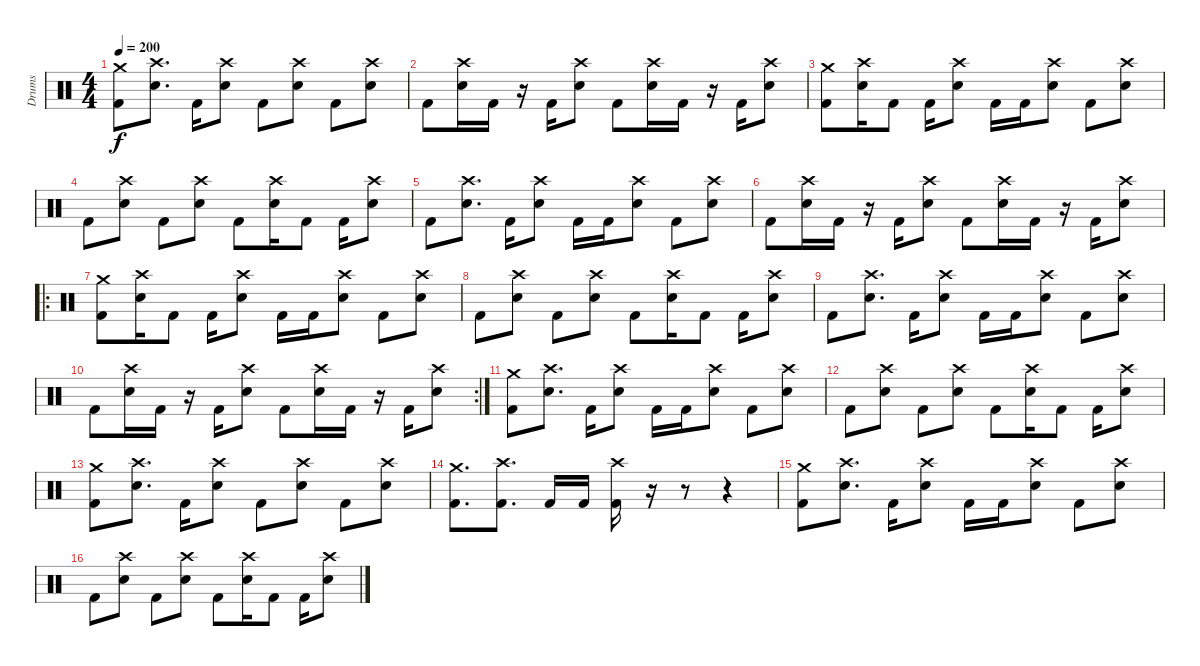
\track ("Drums" "Drums") {instrument percussion}
\staff {score}
\articulation defaults
\ts (4 4)
\tempo 200
\clef neutral
\ks c
("Crash medium (hit)" "Kick (hit) 2").8{dy f} ("Crash high (hit)" "Electric Snare (hit)").8{d} "Kick (hit) 2".16 ("Crash high (hit)" "Electric Snare (hit)").8 "Kick (hit) 2".8 ("Crash high (hit)" "Electric Snare (hit)").8 "Kick (hit) 2".8 ("Crash high (hit)" "Electric Snare (hit)").8 |
"Kick (hit) 2".8 ("Crash high (hit)" "Electric Snare (hit)").16 "Kick (hit) 2".16 r.16 "Kick (hit) 2".16 ("Crash high (hit)" "Electric Snare (hit)").8 "Kick (hit) 2".8 ("Crash high (hit)" "Electric Snare (hit)").16 "Kick (hit) 2".16 r.16 "Kick (hit) 2".16 ("Crash high (hit)" "Electric Snare (hit)").8 |
("Crash medium (hit)" "Kick (hit) 2").8 ("Crash high (hit)" "Electric Snare (hit)").16 "Kick (hit) 2".8 "Kick (hit) 2".16 ("Crash high (hit)" "Electric Snare (hit)").8 "Kick (hit) 2".16 "Kick (hit) 2".16 ("Crash high (hit)" "Electric Snare (hit)").8 "Kick (hit) 2".8 ("Crash high (hit)" "Electric Snare (hit)").8 |
"Kick (hit) 2".8 ("Crash high (hit)" "Electric Snare (hit)").8 "Kick (hit) 2".8 ("Crash high (hit)" "Electric Snare (hit)").8 "Kick (hit) 2".8 ("Crash high (hit)" "Electric Snare (hit)").16 "Kick (hit) 2".8 "Kick (hit) 2".16 ("Crash high (hit)" "Electric Snare (hit)").8 |
"Kick (hit) 2".8 ("Crash high (hit)" "Electric Snare (hit)").8{d} "Kick (hit) 2".16 ("Crash high (hit)" "Electric Snare (hit)").8 "Kick (hit) 2".16 "Kick (hit) 2".16 ("Crash high (hit)" "Electric Snare (hit)").8 "Kick (hit) 2".8 ("Crash high (hit)" "Electric Snare (hit)").8 |
"Kick (hit) 2".8 ("Crash high (hit)" "Electric Snare (hit)").16 "Kick (hit) 2".16 r.16 "Kick (hit) 2".16 ("Crash high (hit)" "Electric Snare (hit)").8 "Kick (hit) 2".8 ("Crash high (hit)" "Electric Snare (hit)").16 "Kick (hit) 2".16 r.16 "Kick (hit) 2".16 ("Crash high (hit)" "Electric Snare (hit)").8 |
\ro
("Crash medium (hit)" "Kick (hit) 2").8 ("Crash high (hit)" "Electric Snare (hit)").16 "Kick (hit) 2".8 "Kick (hit) 2".16 ("Crash high (hit)" "Electric Snare (hit)").8 "Kick (hit) 2".16 "Kick (hit) 2".16 ("Crash high (hit)" "Electric Snare (hit)").8 "Kick (hit) 2".8 ("Crash high (hit)" "Electric Snare (hit)").8 |
"Kick (hit) 2".8 ("Crash high (hit)" "Electric Snare (hit)").8 "Kick (hit) 2".8 ("Crash high (hit)" "Electric Snare (hit)").8 "Kick (hit) 2".8 ("Crash high (hit)" "Electric Snare (hit)").16 "Kick (hit) 2".8 "Kick (hit) 2".16 ("Crash high (hit)" "Electric Snare (hit)").8 |
"Kick (hit) 2".8 ("Crash high (hit)" "Electric Snare (hit)").8{d} "Kick (hit) 2".16 ("Crash high (hit)" "Electric Snare (hit)").8 "Kick (hit) 2".16 "Kick (hit) 2".16 ("Crash high (hit)" "Electric Snare (hit)").8 "Kick (hit) 2".8 ("Crash high (hit)" "Electric Snare (hit)").8 |
\rc 2 "Kick (hit) 2".8
("Crash high (hit)" "Electric Snare (hit)").16 "Kick (hit) 2".16 r.16 "Kick (hit) 2".16 ("Crash high (hit)" "Electric Snare (hit)").8 "Kick (hit) 2".8 ("Crash high (hit)" "Electric Snare (hit)").16 "Kick (hit) 2".16 r.16 "Kick (hit) 2".16 ("Crash high (hit)" "Electric Snare (hit)").8 |
("Crash medium (hit)" "Kick (hit) 2").8 ("Crash high (hit)" "Electric Snare (hit)").8{d} "Kick (hit) 2".16 ("Crash high (hit)" "Electric Snare (hit)").8 "Kick (hit) 2".16 "Kick (hit) 2".16 ("Crash high (hit)" "Electric Snare (hit)").8 "Kick (hit) 2".8 ("Crash high (hit)" "Electric Snare (hit)").8 |
"Kick (hit) 2".8 ("Crash high (hit)" "Electric Snare (hit)").8 "Kick (hit) 2".8 ("Crash high (hit)" "Electric Snare (hit)").8 "Kick (hit) 2".8 ("Crash high (hit)" "Electric Snare (hit)").16 "Kick (hit) 2".8 "Kick (hit) 2".16 ("Crash high (hit)" "Electric Snare (hit)").8 |
("Crash medium (hit)" "Kick (hit) 2").8 ("Crash high (hit)" "Electric Snare (hit)").8{d} "Kick (hit) 2".16 ("Crash high (hit)" "Electric Snare (hit)").8 "Kick (hit) 2".8 ("Crash high (hit)" "Electric Snare (hit)").8 "Kick (hit) 2".8 ("Crash high (hit)" "Electric Snare (hit)").8 |
("Crash medium (hit)" "Kick (hit) 2").8{d} ("Crash high (hit)" "Kick (hit) 2").8{d} "Kick (hit) 2".16 "Kick (hit) 2".16 ("Crash high (hit)" "Kick (hit) 2").16 r.16 r.8 r.4 |
("Crash medium (hit)" "Kick (hit) 2").8 ("Crash high (hit)" "Electric Snare (hit)").8{d} "Kick (hit) 2".16 ("Crash high (hit)" "Electric Snare (hit)").8 "Kick (hit) 2".16 "Kick (hit) 2".16 ("Crash high (hit)" "Electric Snare (hit)").8 "Kick (hit) 2".8 ("Crash high (hit)" "Electric Snare (hit)").8 |
"Kick (hit) 2".8 ("Crash high (hit)" "Electric Snare (hit)").8 "Kick (hit) 2".8 ("Crash high (hit)" "Electric Snare (hit)").8 "Kick (hit) 2".8 ("Crash high (hit)" "Electric Snare (hit)").16 "Kick (hit) 2".8 "Kick (hit) 2".16 ("Crash high (hit)" "Electric Snare (hit)").8
